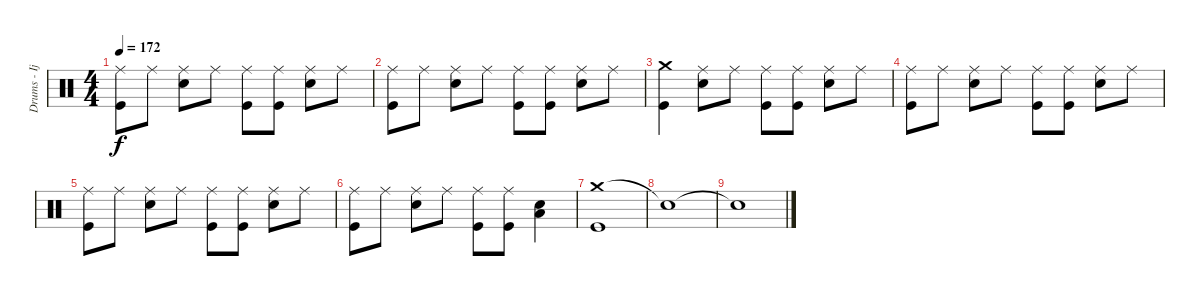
\track ("Drums - Ijichi" "Drums - Ij") {instrument percussion}
\staff {score}
\articulation defaults
\ts (4 4)
\tempo 172
\clef neutral
\ks c
("Ride (middle)" "Kick (hit)").8{dy f} "Ride (middle)".8 ("Ride (middle)" "Electric Snare (hit)").8 "Ride (middle)".8 ("Ride (middle)" "Kick (hit)").8 ("Ride (middle)" "Kick (hit)").8 ("Ride (middle)" "Electric Snare (hit)").8 "Ride (middle)".8 |
("Ride (middle)" "Kick (hit)").8 "Ride (middle)".8 ("Ride (middle)" "Electric Snare (hit)").8 "Ride (middle)".8 ("Ride (middle)" "Kick (hit)").8 ("Ride (middle)" "Kick (hit)").8 ("Ride (middle)" "Electric Snare (hit)").8 "Ride (middle)".8 |
("Crash medium (hit)" "Kick (hit)").4 ("Ride (middle)" "Electric Snare (hit)").8 "Ride (middle)".8 ("Ride (middle)" "Kick (hit)").8 ("Ride (middle)" "Kick (hit)").8 ("Ride (middle)" "Electric Snare (hit)").8 "Ride (middle)".8 |
("Ride (middle)" "Kick (hit)").8 "Ride (middle)".8 ("Ride (middle)" "Electric Snare (hit)").8 "Ride (middle)".8 ("Ride (middle)" "Kick (hit)").8 ("Ride (middle)" "Kick (hit)").8 ("Ride (middle)" "Electric Snare (hit)").8 "Ride (middle)".8 |
("Ride (middle)" "Kick (hit)").8 "Ride (middle)".8 ("Ride (middle)" "Electric Snare (hit)").8 "Ride (middle)".8 ("Ride (middle)" "Kick (hit)").8 ("Ride (middle)" "Kick (hit)").8 ("Ride (middle)" "Electric Snare (hit)").8 "Ride (middle)".8 |
("Ride (middle)" "Kick (hit)").8 "Ride (middle)".8 ("Ride (middle)" "Electric Snare (hit)").8 "Ride (middle)".8 ("Ride (middle)" "Kick (hit)").8 ("Ride (middle)" "Kick (hit)").8 ("Electric Snare (hit)" "Low Tom (hit)").4 |
("Crash medium (hit)" "Kick (hit)").1 |
"Snare (hit)"{t}.1 |
"Snare (hit)"{t}.1
